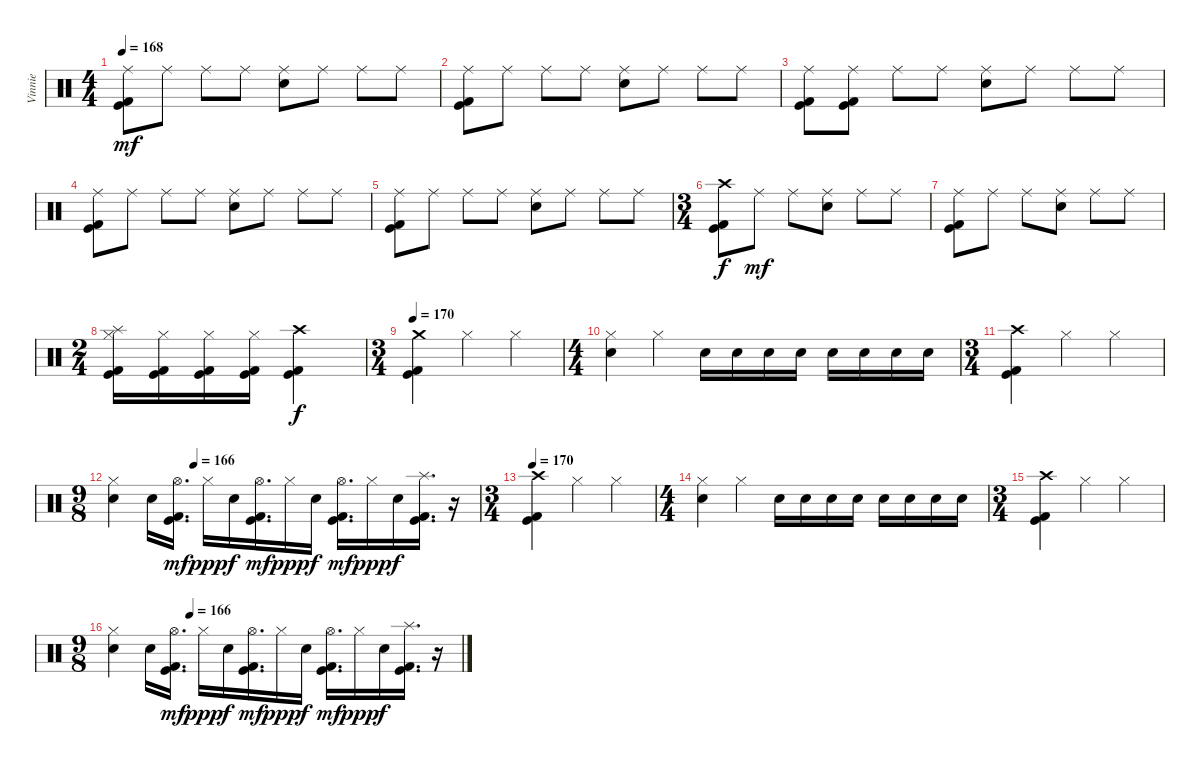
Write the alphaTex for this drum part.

\track ("Vinnie" "Vinnie") {instrument percussion}
\staff {score}
\articulation defaults
\ts (4 4)
\tempo 168
\clef neutral
\ks c
("Ride (middle)" "Kick (hit)" "Kick (hit) 2").8{dy mf} "Ride (middle)".8 "Ride (middle)".8 "Ride (middle)".8 ("Ride (middle)" "Electric Snare (hit)").8 "Ride (middle)".8 "Ride (middle)".8 "Ride (middle)".8 |
("Ride (middle)" "Kick (hit)" "Kick (hit) 2").8 "Ride (middle)".8 "Ride (middle)".8 "Ride (middle)".8 ("Ride (middle)" "Electric Snare (hit)").8 "Ride (middle)".8 "Ride (middle)".8 "Ride (middle)".8 |
("Ride (middle)" "Kick (hit)" "Kick (hit) 2").8 ("Ride (middle)" "Kick (hit)" "Kick (hit) 2").8 "Ride (middle)".8 "Ride (middle)".8 ("Ride (middle)" "Electric Snare (hit)").8 "Ride (middle)".8 "Ride (middle)".8 "Ride (middle)".8 |
("Ride (middle)" "Kick (hit)" "Kick (hit) 2").8 "Ride (middle)".8 "Ride (middle)".8 "Ride (middle)".8 ("Ride (middle)" "Electric Snare (hit)").8 "Ride (middle)".8 "Ride (middle)".8 "Ride (middle)".8 |
("Ride (middle)" "Kick (hit)" "Kick (hit) 2").8 "Ride (middle)".8 "Ride (middle)".8 "Ride (middle)".8 ("Ride (middle)" "Electric Snare (hit)").8 "Ride (middle)".8 "Ride (middle)".8 "Ride (middle)".8 |
\ts (3 4)
("Crash high (hit)" "Kick (hit)" "Kick (hit) 2").8{dy f} "Ride (middle)".8{dy mf} "Ride (middle)".8 ("Ride (middle)" "Electric Snare (hit)").8 "Ride (middle)".8 "Ride (middle)".8 |
("Ride (middle)" "Kick (hit)" "Kick (hit) 2").8 "Ride (middle)".8 "Ride (middle)".8 ("Ride (middle)" "Electric Snare (hit)").8 "Ride (middle)".8 "Ride (middle)".8 |
\ts (2 4)
("Hi-Hat (closed)" "Splash (hit)" "Kick (hit)" "Kick (hit) 2").16 ("Hi-Hat (closed)" "Kick (hit)" "Kick (hit) 2").16 ("Hi-Hat (closed)" "Kick (hit)" "Kick (hit) 2").16 ("Hi-Hat (closed)" "Kick (hit)" "Kick (hit) 2").16 ("Crash high (hit)" "Kick (hit)" "Kick (hit) 2").4{dy f} |
\ts (3 4)
\tempo 170
("Crash medium (hit)" "Kick (hit)" "Kick (hit) 2").4 "Hi-Hat (closed)".4 "Hi-Hat (closed)".4 |
\ts (4 4)
("Hi-Hat (closed)" "Electric Snare (hit)").4 "Hi-Hat (closed)".4 "Electric Snare (hit)".16 "Electric Snare (hit)".16 "Electric Snare (hit)".16 "Electric Snare (hit)".16 "Electric Snare (hit)".16 "Electric Snare (hit)".16 "Electric Snare (hit)".16 "Electric Snare (hit)".16 |
\ts (3 4)
("Crash high (hit)" "Kick (hit)" "Kick (hit) 2").4 "Hi-Hat (closed)".4 "Hi-Hat (closed)".4 |
\ts (9 8)
\tempo (166 0.2222222222222222)
("Hi-Hat (closed)" "Electric Snare (hit)").4 "Electric Snare (hit)".16 ("Hi-Hat (open)" "Kick (hit)" "Kick (hit) 2").16{d dy mf} "Hi-Hat (closed)".16{dy ppp} "Electric Snare (hit)".16{dy f} ("Hi-Hat (open)" "Kick (hit)" "Kick (hit) 2").16{d dy mf} "Hi-Hat (closed)".16{dy ppp} "Electric Snare (hit)".16{dy f} ("Hi-Hat (open)" "Kick (hit)" "Kick (hit) 2").16{d dy mf} "Hi-Hat (closed)".16{dy ppp} "Electric Snare (hit)".16{dy f} ("Splash (hit)" "Kick (hit)" "Kick (hit) 2").16{d} r.16 |
\ts (3 4)
\tempo 170
("Crash high (hit)" "Kick (hit)" "Kick (hit) 2").4 "Hi-Hat (closed)".4 "Hi-Hat (closed)".4 |
\ts (4 4)
("Hi-Hat (closed)" "Electric Snare (hit)").4 "Hi-Hat (closed)".4 "Electric Snare (hit)".16 "Electric Snare (hit)".16 "Electric Snare (hit)".16 "Electric Snare (hit)".16 "Electric Snare (hit)".16 "Electric Snare (hit)".16 "Electric Snare (hit)".16 "Electric Snare (hit)".16 |
\ts (3 4)
("Crash high (hit)" "Kick (hit)" "Kick (hit) 2").4 "Hi-Hat (closed)".4 "Hi-Hat (closed)".4 |
\ts (9 8)
\tempo (166 0.2222222222222222)
("Hi-Hat (closed)" "Electric Snare (hit)").4 "Electric Snare (hit)".16 ("Hi-Hat (open)" "Kick (hit)" "Kick (hit) 2").16{d dy mf} "Hi-Hat (closed)".16{dy ppp} "Electric Snare (hit)".16{dy f} ("Hi-Hat (open)" "Kick (hit)" "Kick (hit) 2").16{d dy mf} "Hi-Hat (closed)".16{dy ppp} "Electric Snare (hit)".16{dy f} ("Hi-Hat (open)" "Kick (hit)" "Kick (hit) 2").16{d dy mf} "Hi-Hat (closed)".16{dy ppp} "Electric Snare (hit)".16{dy f} ("Splash (hit)" "Kick (hit)" "Kick (hit) 2").16{d} r.16
